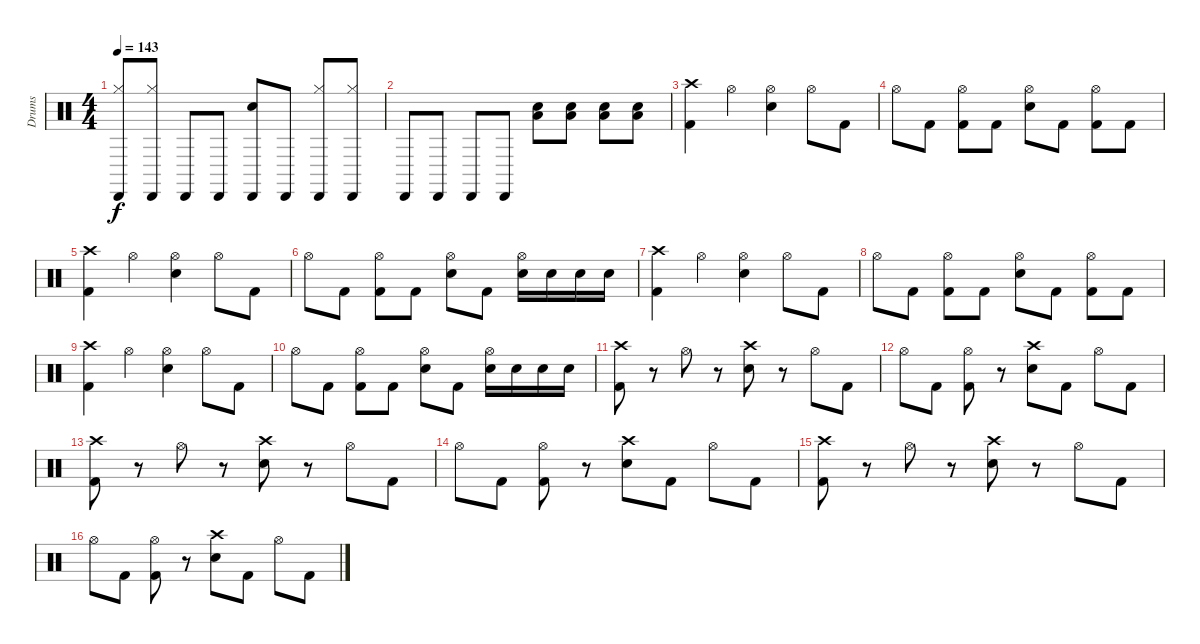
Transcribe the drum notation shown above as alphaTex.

\track ("Drums" "Drums") {instrument percussion}
\staff {score}
\articulation defaults
\ts (4 4)
\tempo 143
\clef neutral
\ks c
("Cabasa (hit)" "Hi-Hat (closed)").8{dy f} ("Cabasa (hit)" "Hi-Hat (closed)").8 "Cabasa (hit)".8 "Cabasa (hit)".8 ("Cabasa (hit)" "Electric Snare (hit)").8 "Cabasa (hit)".8 ("Cabasa (hit)" "Hi-Hat (closed)").8 ("Cabasa (hit)" "Hi-Hat (closed)").8 |
"Cabasa (hit)".8 "Cabasa (hit)".8 "Cabasa (hit)".8 "Cabasa (hit)".8 ("Electric Snare (hit)" "Low Floor Tom (hit)").8 ("Electric Snare (hit)" "Low Floor Tom (hit)").8 ("Electric Snare (hit)" "Low Floor Tom (hit)").8 ("Electric Snare (hit)" "Low Floor Tom (hit)").8 |
("Crash high (hit)" "Kick (hit) 2").4 "Hi-Hat (open)".4 ("Hi-Hat (open)" "Electric Snare (hit)").4 "Hi-Hat (open)".8 "Kick (hit) 2".8 |
"Hi-Hat (open)".8 "Kick (hit) 2".8 ("Hi-Hat (open)" "Kick (hit) 2").8 "Kick (hit) 2".8 ("Hi-Hat (open)" "Electric Snare (hit)").8 "Kick (hit) 2".8 ("Hi-Hat (open)" "Kick (hit) 2").8 "Kick (hit) 2".8 |
("Crash high (hit)" "Kick (hit) 2").4 "Hi-Hat (open)".4 ("Hi-Hat (open)" "Electric Snare (hit)").4 "Hi-Hat (open)".8 "Kick (hit) 2".8 |
"Hi-Hat (open)".8 "Kick (hit) 2".8 ("Hi-Hat (open)" "Kick (hit) 2").8 "Kick (hit) 2".8 ("Hi-Hat (open)" "Electric Snare (hit)").8 "Kick (hit) 2".8 ("Hi-Hat (open)" "Electric Snare (hit)").16 "Electric Snare (hit)".16 "Electric Snare (hit)".16 "Electric Snare (hit)".16 |
("Crash high (hit)" "Kick (hit) 2").4 "Hi-Hat (open)".4 ("Hi-Hat (open)" "Electric Snare (hit)").4 "Hi-Hat (open)".8 "Kick (hit) 2".8 |
"Hi-Hat (open)".8 "Kick (hit) 2".8 ("Hi-Hat (open)" "Kick (hit) 2").8 "Kick (hit) 2".8 ("Hi-Hat (open)" "Electric Snare (hit)").8 "Kick (hit) 2".8 ("Hi-Hat (open)" "Kick (hit) 2").8 "Kick (hit) 2".8 |
("Crash high (hit)" "Kick (hit) 2").4 "Hi-Hat (open)".4 ("Hi-Hat (open)" "Electric Snare (hit)").4 "Hi-Hat (open)".8 "Kick (hit) 2".8 |
"Hi-Hat (open)".8 "Kick (hit) 2".8 ("Hi-Hat (open)" "Kick (hit) 2").8 "Kick (hit) 2".8 ("Hi-Hat (open)" "Electric Snare (hit)").8 "Kick (hit) 2".8 ("Hi-Hat (open)" "Electric Snare (hit)").16 "Electric Snare (hit)".16 "Electric Snare (hit)".16 "Electric Snare (hit)".16 |
("Crash high (hit)" "Kick (hit) 2").8 r.8 "Hi-Hat (open)".8 r.8 ("Crash high (hit)" "Electric Snare (hit)").8 r.8 "Hi-Hat (open)".8 "Kick (hit) 2".8 |
"Hi-Hat (open)".8 "Kick (hit) 2".8 ("Kick (hit) 2" "Hi-Hat (open)").8 r.8 ("Crash high (hit)" "Electric Snare (hit)").8 "Kick (hit) 2".8 "Hi-Hat (open)".8 "Kick (hit) 2".8 |
("Crash high (hit)" "Kick (hit) 2").8 r.8 "Hi-Hat (open)".8 r.8 ("Crash high (hit)" "Electric Snare (hit)").8 r.8 "Hi-Hat (open)".8 "Kick (hit) 2".8 |
"Hi-Hat (open)".8 "Kick (hit) 2".8 ("Kick (hit) 2" "Hi-Hat (open)").8 r.8 ("Crash high (hit)" "Electric Snare (hit)").8 "Kick (hit) 2".8 "Hi-Hat (open)".8 "Kick (hit) 2".8 |
("Crash high (hit)" "Kick (hit) 2").8 r.8 "Hi-Hat (open)".8 r.8 ("Crash high (hit)" "Electric Snare (hit)").8 r.8 "Hi-Hat (open)".8 "Kick (hit) 2".8 |
"Hi-Hat (open)".8 "Kick (hit) 2".8 ("Kick (hit) 2" "Hi-Hat (open)").8 r.8 ("Crash high (hit)" "Electric Snare (hit)").8 "Kick (hit) 2".8 "Hi-Hat (open)".8 "Kick (hit) 2".8
